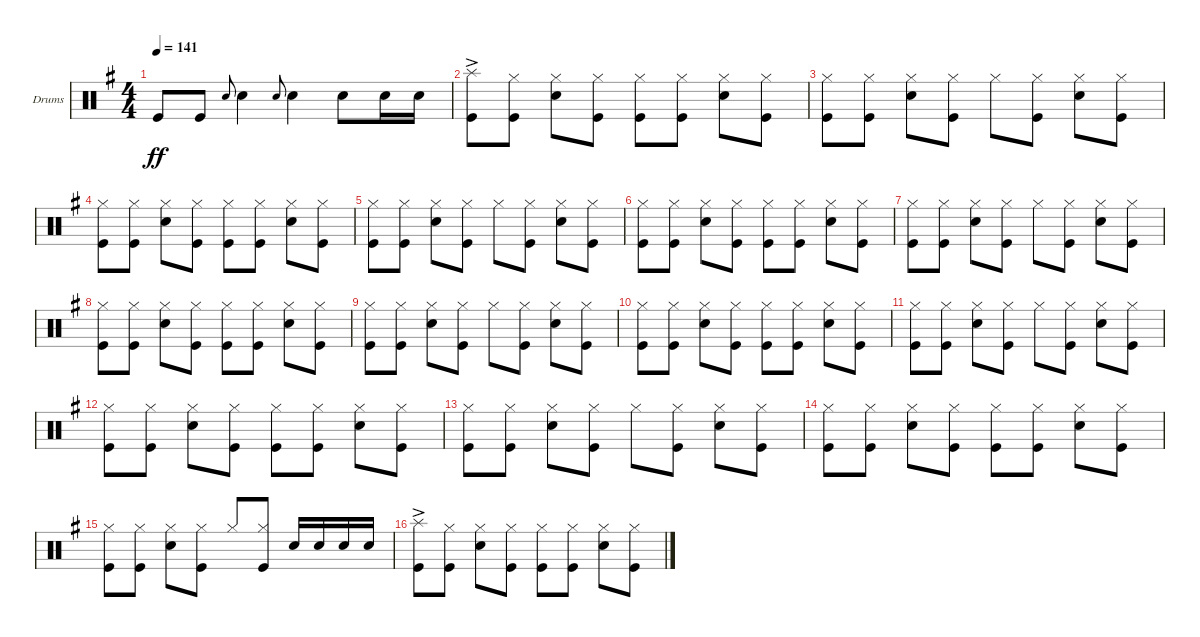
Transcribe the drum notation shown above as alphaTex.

\defaultSystemsLayout 4
\bracketExtendMode groupsimilarinstruments
\firstSystemTrackNameOrientation horizontal
\otherSystemsTrackNameOrientation horizontal
\track ("Drumkit" "Drums") {instrument percussion}
\staff {score}
\articulation defaults
\ts (4 4)
\tempo 141
\clef neutral
\scale
0.333333
\ks g "Kick (hit)".8{dy ff} "Kick (hit)".8 "Snare (hit) 2".8{gr onbeat} "Snare (hit) 2".4 "Snare (hit) 2".8{gr onbeat} "Snare (hit) 2".4 "Snare (hit) 2".8 "Snare (hit) 2".16 "Snare (hit) 2".16
|
\scale
0.333333 ("Kick (hit)" "Splash (hit)"{ac}).8 ("Kick (hit)" "Hi-Hat (closed)").8 ("Snare (hit) 2" "Hi-Hat (closed)").8 ("Kick (hit)" "Hi-Hat (closed)").8 ("Kick (hit)" "Hi-Hat (closed)").8 ("Kick (hit)" "Hi-Hat (closed)").8 ("Snare (hit) 2" "Hi-Hat (closed)").8 ("Kick (hit)" "Hi-Hat (closed)").8 |
\scale
0.333333 ("Kick (hit)" "Hi-Hat (closed)").8 ("Kick (hit)" "Hi-Hat (closed)").8 ("Snare (hit) 2" "Hi-Hat (closed)").8 ("Kick (hit)" "Hi-Hat (closed)").8 "Hi-Hat (closed)".8 ("Kick (hit)" "Hi-Hat (closed)").8 ("Snare (hit) 2" "Hi-Hat (closed)").8 ("Kick (hit)" "Hi-Hat (closed)").8 |
\scale
0.333333 ("Kick (hit)" "Hi-Hat (closed)").8 ("Kick (hit)" "Hi-Hat (closed)").8 ("Snare (hit) 2" "Hi-Hat (closed)").8 ("Kick (hit)" "Hi-Hat (closed)").8 ("Kick (hit)" "Hi-Hat (closed)").8 ("Kick (hit)" "Hi-Hat (closed)").8 ("Snare (hit) 2" "Hi-Hat (closed)").8 ("Kick (hit)" "Hi-Hat (closed)").8 |
\scale
0.333333 ("Kick (hit)" "Hi-Hat (closed)").8 ("Kick (hit)" "Hi-Hat (closed)").8 ("Snare (hit) 2" "Hi-Hat (closed)").8 ("Hi-Hat (closed)" "Kick (hit)").8 "Hi-Hat (closed)".8 ("Kick (hit)" "Hi-Hat (closed)").8 ("Snare (hit) 2" "Hi-Hat (closed)").8 ("Kick (hit)" "Hi-Hat (closed)").8 |
\scale
0.333333 ("Kick (hit)" "Hi-Hat (closed)").8 ("Kick (hit)" "Hi-Hat (closed)").8 ("Snare (hit) 2" "Hi-Hat (closed)").8 ("Kick (hit)" "Hi-Hat (closed)").8 ("Kick (hit)" "Hi-Hat (closed)").8 ("Kick (hit)" "Hi-Hat (closed)").8 ("Snare (hit) 2" "Hi-Hat (closed)").8 ("Kick (hit)" "Hi-Hat (closed)").8 |
\scale
0.333333 ("Kick (hit)" "Hi-Hat (closed)").8 ("Kick (hit)" "Hi-Hat (closed)").8 ("Snare (hit) 2" "Hi-Hat (closed)").8 ("Hi-Hat (closed)" "Kick (hit)").8 "Hi-Hat (closed)".8 ("Kick (hit)" "Hi-Hat (closed)").8 ("Snare (hit) 2" "Hi-Hat (closed)").8 ("Kick (hit)" "Hi-Hat (closed)").8 |
\scale
0.333333 ("Kick (hit)" "Hi-Hat (closed)").8 ("Kick (hit)" "Hi-Hat (closed)").8 ("Snare (hit) 2" "Hi-Hat (closed)").8 ("Kick (hit)" "Hi-Hat (closed)").8 ("Kick (hit)" "Hi-Hat (closed)").8 ("Kick (hit)" "Hi-Hat (closed)").8 ("Snare (hit) 2" "Hi-Hat (closed)").8 ("Kick (hit)" "Hi-Hat (closed)").8 |
\scale
0.333333 ("Kick (hit)" "Hi-Hat (closed)").8 ("Kick (hit)" "Hi-Hat (closed)").8 ("Snare (hit) 2" "Hi-Hat (closed)").8 ("Hi-Hat (closed)" "Kick (hit)").8 "Hi-Hat (closed)".8 ("Kick (hit)" "Hi-Hat (closed)").8 ("Snare (hit) 2" "Hi-Hat (closed)").8 ("Kick (hit)" "Hi-Hat (closed)").8 |
\scale
0.333333 ("Kick (hit)" "Hi-Hat (closed)").8 ("Kick (hit)" "Hi-Hat (closed)").8 ("Snare (hit) 2" "Hi-Hat (closed)").8 ("Kick (hit)" "Hi-Hat (closed)").8 ("Kick (hit)" "Hi-Hat (closed)").8 ("Kick (hit)" "Hi-Hat (closed)").8 ("Snare (hit) 2" "Hi-Hat (closed)").8 ("Kick (hit)" "Hi-Hat (closed)").8 |
\scale
0.333333 ("Kick (hit)" "Hi-Hat (closed)").8 ("Kick (hit)" "Hi-Hat (closed)").8 ("Snare (hit) 2" "Hi-Hat (closed)").8 ("Kick (hit)" "Hi-Hat (closed)").8 "Hi-Hat (closed)".8 ("Kick (hit)" "Hi-Hat (closed)").8 ("Snare (hit) 2" "Hi-Hat (closed)").8 ("Kick (hit)" "Hi-Hat (closed)").8 |
\scale
0.333333 ("Kick (hit)" "Hi-Hat (closed)").8 ("Kick (hit)" "Hi-Hat (closed)").8 ("Snare (hit) 2" "Hi-Hat (closed)").8 ("Kick (hit)" "Hi-Hat (closed)").8 ("Kick (hit)" "Hi-Hat (closed)").8 ("Kick (hit)" "Hi-Hat (closed)").8 ("Snare (hit) 2" "Hi-Hat (closed)").8 ("Kick (hit)" "Hi-Hat (closed)").8 |
\scale
0.333333 ("Kick (hit)" "Hi-Hat (closed)").8 ("Kick (hit)" "Hi-Hat (closed)").8 ("Snare (hit) 2" "Hi-Hat (closed)").8 ("Hi-Hat (closed)" "Kick (hit)").8 "Hi-Hat (closed)".8 ("Kick (hit)" "Hi-Hat (closed)").8 ("Snare (hit) 2" "Hi-Hat (closed)").8 ("Kick (hit)" "Hi-Hat (closed)").8 |
\scale
0.333333 ("Kick (hit)" "Hi-Hat (closed)").8 ("Kick (hit)" "Hi-Hat (closed)").8 ("Snare (hit) 2" "Hi-Hat (closed)").8 ("Kick (hit)" "Hi-Hat (closed)").8 ("Kick (hit)" "Hi-Hat (closed)").8 ("Kick (hit)" "Hi-Hat (closed)").8 ("Snare (hit) 2" "Hi-Hat (closed)").8 ("Kick (hit)" "Hi-Hat (closed)").8 |
\scale
0.333333 ("Kick (hit)" "Hi-Hat (closed)").8 ("Kick (hit)" "Hi-Hat (closed)").8 ("Snare (hit) 2" "Hi-Hat (closed)").8 ("Hi-Hat (closed)" "Kick (hit)").8 "Hi-Hat (closed)".8 ("Kick (hit)" "Hi-Hat (closed)").8 "Snare (hit) 2".16{beam invert} "Snare (hit) 2".16 "Snare (hit) 2".16 "Snare (hit) 2".16 |
\scale
0.333333 ("Kick (hit)" "Splash (hit)"{ac}).8 ("Kick (hit)" "Hi-Hat (closed)").8 ("Snare (hit) 2" "Hi-Hat (closed)").8 ("Kick (hit)" "Hi-Hat (closed)").8 ("Kick (hit)" "Hi-Hat (closed)").8 ("Kick (hit)" "Hi-Hat (closed)").8 ("Snare (hit) 2" "Hi-Hat (closed)").8 ("Kick (hit)" "Hi-Hat (closed)").8
